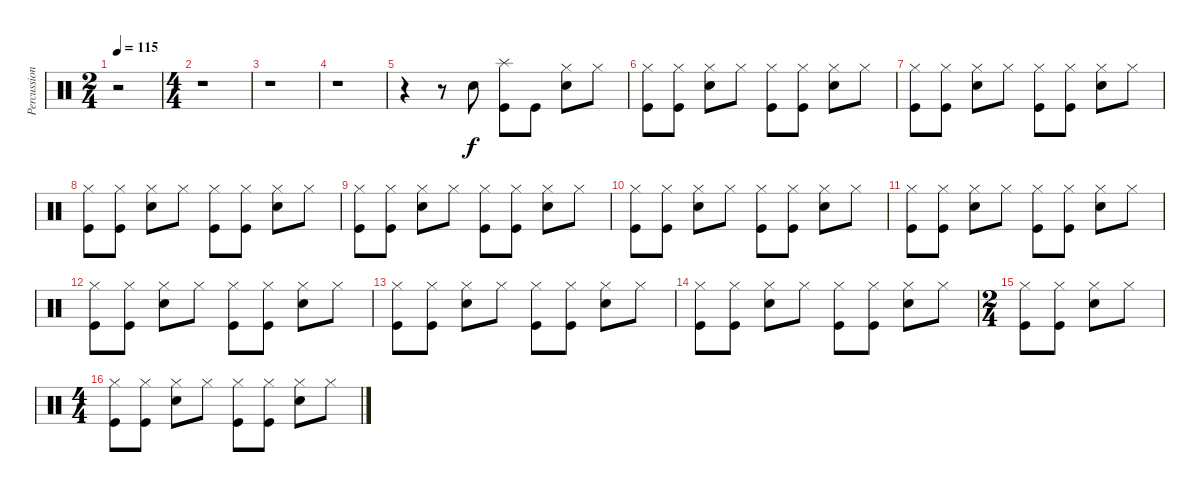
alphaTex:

\track ("Percussion" "Percussion") {instrument percussion}
\staff {score}
\articulation defaults
\ts (2 4)
\tempo 115
\clef neutral
\ks c
r.2{dy f} |
\ts (4 4)
r.1 |
r.1 |
r.1 |
r.4 r.8 "Snare (hit) 2".8 ("Splash (hit)" "Kick (hit)").8 "Kick (hit)".8 ("Hi-Hat (closed)" "Snare (hit) 2").8 "Hi-Hat (closed)".8 |
("Hi-Hat (closed)" "Kick (hit)").8 ("Hi-Hat (closed)" "Kick (hit)").8 ("Hi-Hat (closed)" "Snare (hit) 2").8 "Hi-Hat (closed)".8 ("Hi-Hat (closed)" "Kick (hit)").8 ("Hi-Hat (closed)" "Kick (hit)").8 ("Hi-Hat (closed)" "Snare (hit) 2").8 "Hi-Hat (closed)".8 |
("Hi-Hat (closed)" "Kick (hit)").8 ("Hi-Hat (closed)" "Kick (hit)").8 ("Hi-Hat (closed)" "Snare (hit) 2").8 "Hi-Hat (closed)".8 ("Hi-Hat (closed)" "Kick (hit)").8 ("Hi-Hat (closed)" "Kick (hit)").8 ("Hi-Hat (closed)" "Snare (hit) 2").8 "Hi-Hat (closed)".8 |
("Hi-Hat (closed)" "Kick (hit)").8 ("Hi-Hat (closed)" "Kick (hit)").8 ("Hi-Hat (closed)" "Snare (hit) 2").8 "Hi-Hat (closed)".8 ("Hi-Hat (closed)" "Kick (hit)").8 ("Hi-Hat (closed)" "Kick (hit)").8 ("Hi-Hat (closed)" "Snare (hit) 2").8 "Hi-Hat (closed)".8 |
("Hi-Hat (closed)" "Kick (hit)").8 ("Hi-Hat (closed)" "Kick (hit)").8 ("Hi-Hat (closed)" "Snare (hit) 2").8 "Hi-Hat (closed)".8 ("Hi-Hat (closed)" "Kick (hit)").8 ("Hi-Hat (closed)" "Kick (hit)").8 ("Hi-Hat (closed)" "Snare (hit) 2").8 "Hi-Hat (closed)".8 |
("Hi-Hat (closed)" "Kick (hit)").8 ("Hi-Hat (closed)" "Kick (hit)").8 ("Hi-Hat (closed)" "Snare (hit) 2").8 "Hi-Hat (closed)".8 ("Hi-Hat (closed)" "Kick (hit)").8 ("Hi-Hat (closed)" "Kick (hit)").8 ("Hi-Hat (closed)" "Snare (hit) 2").8 "Hi-Hat (closed)".8 |
("Hi-Hat (closed)" "Kick (hit)").8 ("Hi-Hat (closed)" "Kick (hit)").8 ("Hi-Hat (closed)" "Snare (hit) 2").8 "Hi-Hat (closed)".8 ("Hi-Hat (closed)" "Kick (hit)").8 ("Hi-Hat (closed)" "Kick (hit)").8 ("Hi-Hat (closed)" "Snare (hit) 2").8 "Hi-Hat (closed)".8 |
("Hi-Hat (closed)" "Kick (hit)").8 ("Hi-Hat (closed)" "Kick (hit)").8 ("Hi-Hat (closed)" "Snare (hit) 2").8 "Hi-Hat (closed)".8 ("Hi-Hat (closed)" "Kick (hit)").8 ("Hi-Hat (closed)" "Kick (hit)").8 ("Hi-Hat (closed)" "Snare (hit) 2").8 "Hi-Hat (closed)".8 |
("Hi-Hat (closed)" "Kick (hit)").8 ("Hi-Hat (closed)" "Kick (hit)").8 ("Hi-Hat (closed)" "Snare (hit) 2").8 "Hi-Hat (closed)".8 ("Hi-Hat (closed)" "Kick (hit)").8 ("Hi-Hat (closed)" "Kick (hit)").8 ("Hi-Hat (closed)" "Snare (hit) 2").8 "Hi-Hat (closed)".8 |
("Hi-Hat (closed)" "Kick (hit)").8 ("Hi-Hat (closed)" "Kick (hit)").8 ("Hi-Hat (closed)" "Snare (hit) 2").8 "Hi-Hat (closed)".8 ("Hi-Hat (closed)" "Kick (hit)").8 ("Hi-Hat (closed)" "Kick (hit)").8 ("Hi-Hat (closed)" "Snare (hit) 2").8 "Hi-Hat (closed)".8 |
\ts (2 4)
("Hi-Hat (closed)" "Kick (hit)").8 ("Hi-Hat (closed)" "Kick (hit)").8 ("Hi-Hat (closed)" "Snare (hit) 2").8 "Hi-Hat (closed)".8 |
\ts (4 4)
("Hi-Hat (closed)" "Kick (hit)").8 ("Hi-Hat (closed)" "Kick (hit)").8 ("Hi-Hat (closed)" "Snare (hit) 2").8 "Hi-Hat (closed)".8 ("Hi-Hat (closed)" "Kick (hit)").8 ("Hi-Hat (closed)" "Kick (hit)").8 ("Hi-Hat (closed)" "Snare (hit) 2").8 "Hi-Hat (closed)".8
